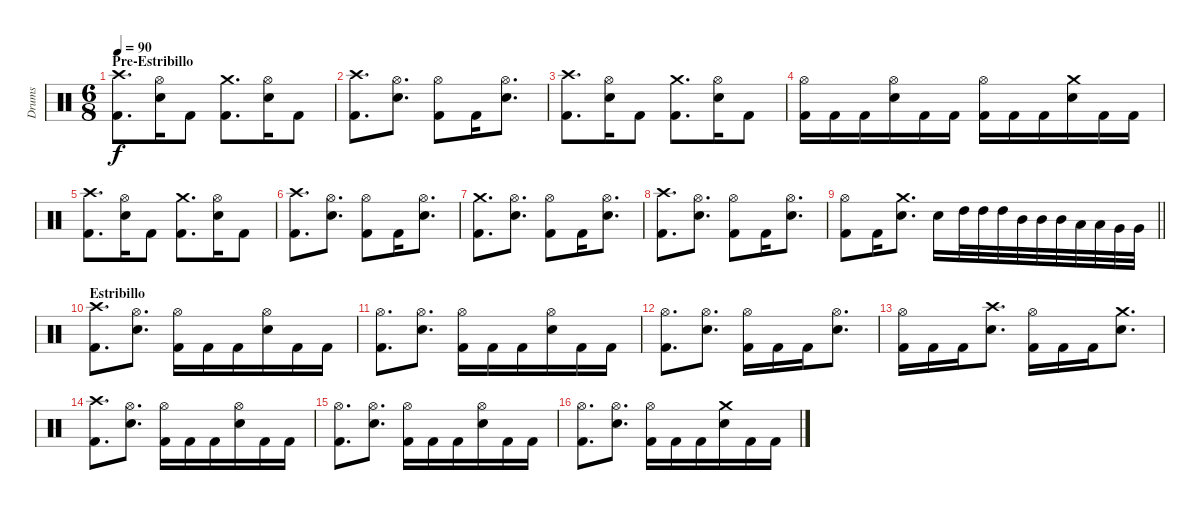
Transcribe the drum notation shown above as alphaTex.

\track ("Drums" "Drums") {instrument percussion}
\staff {score}
\articulation defaults
\ts (6 8)
\section ("" "Pre-Estribillo")
\tempo 90
\clef neutral
\ks c
("Kick (hit) 2" "Crash high (hit)").8{d dy f} ("Electric Snare (hit)" "Hi-Hat (open)").16 "Kick (hit) 2".8 ("Kick (hit) 2" "Crash medium (hit)").8{d} ("Electric Snare (hit)" "Hi-Hat (open)").16 "Kick (hit) 2".8 |
("Kick (hit) 2" "Crash high (hit)").8{d} ("Electric Snare (hit)" "Hi-Hat (open)").8{d} ("Kick (hit) 2" "Hi-Hat (open)").8 "Kick (hit) 2".16 ("Electric Snare (hit)" "Hi-Hat (open)").8{d} |
("Kick (hit) 2" "Crash high (hit)").8{d} ("Electric Snare (hit)" "Hi-Hat (open)").16 "Kick (hit) 2".8 ("Kick (hit) 2" "Crash medium (hit)").8{d} ("Electric Snare (hit)" "Hi-Hat (open)").16 "Kick (hit) 2".8 |
("Kick (hit) 2" "Hi-Hat (open)").16 "Kick (hit) 2".16 "Kick (hit) 2".16 ("Electric Snare (hit)" "Hi-Hat (open)").16 "Kick (hit) 2".16 "Kick (hit) 2".16 ("Kick (hit) 2" "Hi-Hat (open)").16 "Kick (hit) 2".16 "Kick (hit) 2".16 ("Electric Snare (hit)" "Crash medium (hit)").16 "Kick (hit) 2".16 "Kick (hit) 2".16 |
("Kick (hit) 2" "Crash high (hit)").8{d} ("Electric Snare (hit)" "Hi-Hat (open)").16 "Kick (hit) 2".8 ("Kick (hit) 2" "Crash medium (hit)").8{d} ("Electric Snare (hit)" "Hi-Hat (open)").16 "Kick (hit) 2".8 |
("Kick (hit) 2" "Crash high (hit)").8{d} ("Electric Snare (hit)" "Hi-Hat (open)").8{d} ("Kick (hit) 2" "Hi-Hat (open)").8 "Kick (hit) 2".16 ("Electric Snare (hit)" "Hi-Hat (open)").8{d} |
("Kick (hit) 2" "Crash medium (hit)").8{d} ("Electric Snare (hit)" "Hi-Hat (open)").8{d} ("Kick (hit) 2" "Hi-Hat (open)").8 "Kick (hit) 2".16 ("Electric Snare (hit)" "Hi-Hat (open)").8{d} |
("Kick (hit) 2" "Crash high (hit)").8{d} ("Electric Snare (hit)" "Hi-Hat (open)").8{d} ("Kick (hit) 2" "Hi-Hat (open)").8 "Kick (hit) 2".16 ("Electric Snare (hit)" "Hi-Hat (open)").8{d} |
\barLineRight lightlight
("Kick (hit) 2" "Hi-Hat (open)").8 "Kick (hit) 2".16 ("Electric Snare (hit)" "Crash medium (hit)").8{d} "Electric Snare (hit)".16 "High Tom (hit)".32 "High Tom (hit)".32 "High Tom (hit)".32 "Mid Tom (hit)".32 "Mid Tom (hit)".32 "Mid Tom (hit)".32 "Low Tom (hit)".32 "Low Tom (hit)".32 "Very Low Tom (hit)".32 "Very Low Tom (hit)".32 |
\section ("" "Estribillo")
("Kick (hit) 2" "Crash high (hit)").8{d} ("Electric Snare (hit)" "Hi-Hat (open)").8{d} ("Kick (hit) 2" "Hi-Hat (open)").16 "Kick (hit) 2".16 "Kick (hit) 2".16 ("Electric Snare (hit)" "Hi-Hat (open)").16 "Kick (hit) 2".16 "Kick (hit) 2".16 |
("Kick (hit) 2" "Hi-Hat (open)").8{d} ("Electric Snare (hit)" "Hi-Hat (open)").8{d} ("Kick (hit) 2" "Hi-Hat (open)").16 "Kick (hit) 2".16 "Kick (hit) 2".16 ("Electric Snare (hit)" "Hi-Hat (open)").16 "Kick (hit) 2".16 "Kick (hit) 2".16 |
("Kick (hit) 2" "Hi-Hat (open)").8{d} ("Electric Snare (hit)" "Hi-Hat (open)").8{d} ("Kick (hit) 2" "Hi-Hat (open)").16 "Kick (hit) 2".16 "Kick (hit) 2".16 ("Electric Snare (hit)" "Hi-Hat (open)").8{d} |
("Kick (hit) 2" "Hi-Hat (open)").16 "Kick (hit) 2".16 "Kick (hit) 2".16 ("Electric Snare (hit)" "Crash high (hit)").8{d} ("Kick (hit) 2" "Hi-Hat (open)").16 "Kick (hit) 2".16 "Kick (hit) 2".16 ("Electric Snare (hit)" "Crash medium (hit)").8{d} |
("Kick (hit) 2" "Crash high (hit)").8{d} ("Electric Snare (hit)" "Hi-Hat (open)").8{d} ("Kick (hit) 2" "Hi-Hat (open)").16 "Kick (hit) 2".16 "Kick (hit) 2".16 ("Electric Snare (hit)" "Hi-Hat (open)").16 "Kick (hit) 2".16 "Kick (hit) 2".16 |
("Kick (hit) 2" "Hi-Hat (open)").8{d} ("Electric Snare (hit)" "Hi-Hat (open)").8{d} ("Kick (hit) 2" "Hi-Hat (open)").16 "Kick (hit) 2".16 "Kick (hit) 2".16 ("Electric Snare (hit)" "Hi-Hat (open)").16 "Kick (hit) 2".16 "Kick (hit) 2".16 |
("Kick (hit) 2" "Hi-Hat (open)").8{d} ("Electric Snare (hit)" "Hi-Hat (open)").8{d} ("Kick (hit) 2" "Hi-Hat (open)").16 "Kick (hit) 2".16 "Kick (hit) 2".16 ("Electric Snare (hit)" "Crash medium (hit)").16 "Kick (hit) 2".16 "Kick (hit) 2".16
